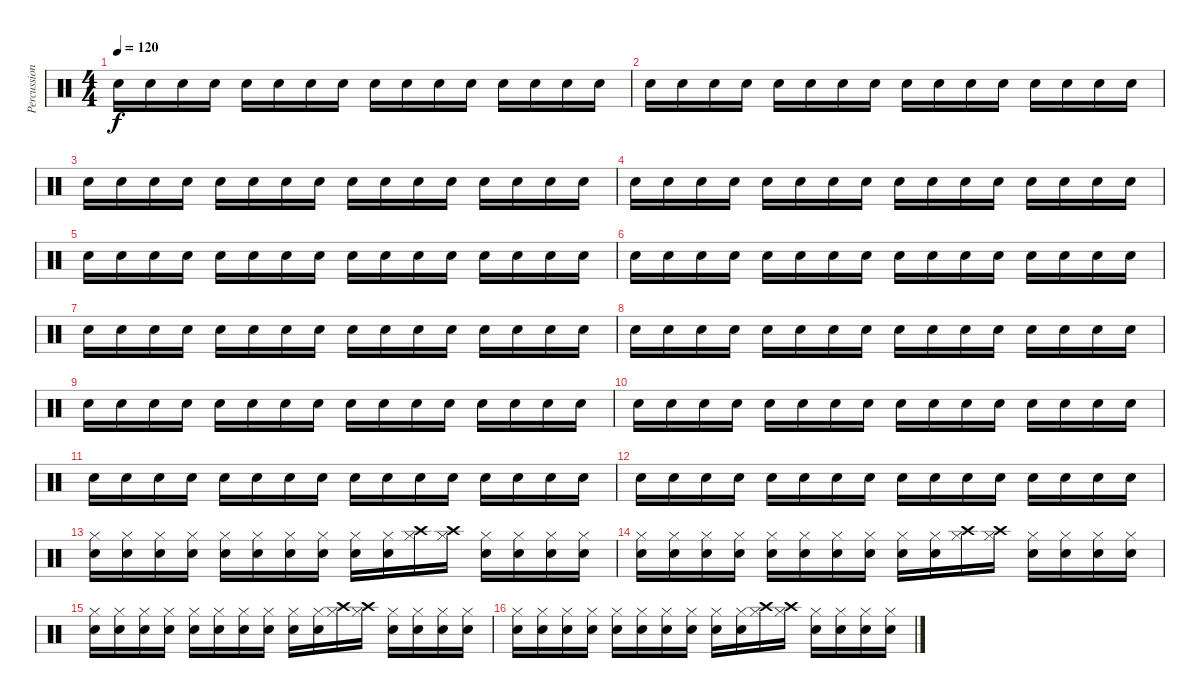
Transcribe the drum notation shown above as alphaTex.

\track ("Percussions" "Percussion") {instrument percussion}
\staff {score}
\articulation defaults
\ts (4 4)
\tempo 120
\clef neutral
\ks c "Electric Snare (hit)".16{dy f} "Electric Snare (hit)".16 "Snare (hit)"{x}.16 "Snare (hit)"{x}.16 "Electric Snare (hit)".16 "Electric Snare (hit)".16 "Snare (hit) 2".16 "Snare (hit)"{x}.16 "Snare (hit)"{x}.16 "Electric Snare (hit)".16 "Electric Snare (hit)".16 "Snare (hit)"{x}.16 "Electric Snare (hit)".16 "Electric Snare (hit)".16 "Snare (hit) 2".16 "Electric Snare (hit)".16
|
"Snare (hit)"{x}.16 "Snare (hit)"{x}.16 "Snare (hit)"{x}.16 "Snare (hit)"{x}.16 "Electric Snare (hit)".16 "Electric Snare (hit)".16 "Electric Snare (hit)".16 "Electric Snare (hit)".16 "Snare (hit) 2".16 "Snare (hit) 2".16 "Snare (hit) 2".16 "Snare (hit) 2".16 "Electric Snare (hit)".16 "Electric Snare (hit)".16 "Snare (hit)"{x}.16 "Snare (hit)"{x}.16 |
"Snare (hit)"{x}.16 "Snare (hit)"{x}.16 "Electric Snare (hit)".16 "Electric Snare (hit)".16 "Snare (hit) 2".16 "Snare (hit) 2".16 "Electric Snare (hit)".16 "Electric Snare (hit)".16 "Snare (hit)"{x}.16 "Electric Snare (hit)".16 "Snare (hit)"{x}.16 "Snare (hit) 2".16 "Snare (hit)"{x}.16 "Electric Snare (hit)".16 "Snare (hit)"{x}.16 "Snare (hit) 2".16 |
"Snare (hit)"{x}.16 "Electric Snare (hit)".16 "Snare (hit)"{x}.16 "Snare (hit) 2".16 "Electric Snare (hit)"{x}.16 "Electric Snare (hit)".16 "Snare (hit) 2"{x}.16 "Snare (hit) 2".16 "Snare (hit)"{x}.16 "Electric Snare (hit)".16 "Snare (hit)"{x}.16 "Snare (hit) 2".16 "Snare (hit)"{x}.16 "Electric Snare (hit)".16 "Snare (hit)"{x}.16 "Snare (hit) 2".16 |
"Snare (hit)"{x}.16 "Electric Snare (hit)".16 "Snare (hit)"{x}.16 "Snare (hit) 2".16 "Electric Snare (hit)"{x}.16 "Electric Snare (hit)".16 "Snare (hit) 2"{x}.16 "Snare (hit) 2".16 "Snare (hit)"{x}.16 "Electric Snare (hit)".16 "Snare (hit)"{x}.16 "Snare (hit) 2".16 "Snare (hit)"{x}.16 "Electric Snare (hit)".16 "Snare (hit)"{x}.16 "Snare (hit) 2".16 |
"Snare (hit)"{x}.16 "Snare (hit)"{x}.16 "Electric Snare (hit)".16 "Electric Snare (hit)".16 "Electric Snare (hit)".16 "Electric Snare (hit)".16 "Snare (hit) 2".16 "Snare (hit) 2".16 "Snare (hit) 2".16 "Snare (hit) 2".16 "Electric Snare (hit)".16 "Electric Snare (hit)".16 "Electric Snare (hit)".16 "Electric Snare (hit)".16 "Snare (hit) 2".16 "Snare (hit) 2".16 |
"Snare (hit) 2".16 "Snare (hit) 2".16 "Electric Snare (hit)".16 "Electric Snare (hit)".16 "Electric Snare (hit)".16 "Electric Snare (hit)".16 "Snare (hit) 2".16 "Snare (hit) 2".16 "Snare (hit) 2".16 "Snare (hit) 2".16 "Electric Snare (hit)".16 "Electric Snare (hit)".16 "Electric Snare (hit)".16 "Electric Snare (hit)".16 "Snare (hit) 2".16 "Snare (hit) 2".16 |
"Snare (hit)"{x}.16 "Snare (hit)"{x}.16 "Snare (hit)"{x}.16 "Snare (hit)"{x}.16 "Electric Snare (hit)".16 "Electric Snare (hit)".16 "Electric Snare (hit)".16 "Electric Snare (hit)".16 "Snare (hit)"{x}.16 "Snare (hit)"{x}.16 "Snare (hit)"{x}.16 "Snare (hit)"{x}.16 "Snare (hit) 2".16 "Snare (hit) 2".16 "Snare (hit) 2".16 "Snare (hit) 2".16 |
"Snare (hit)"{x}.16 "Snare (hit)"{x}.16 "Snare (hit)"{x}.16 "Snare (hit)"{x}.16 "Electric Snare (hit)".16 "Electric Snare (hit)".16 "Electric Snare (hit)".16 "Electric Snare (hit)".16 "Snare (hit)"{x}.16 "Snare (hit)"{x}.16 "Snare (hit)"{x}.16 "Snare (hit)"{x}.16 "Snare (hit) 2".16 "Snare (hit) 2".16 "Snare (hit) 2".16 "Snare (hit) 2".16 |
"Snare (hit)"{x}.16 "Snare (hit)"{x}.16 "Snare (hit)"{x}.16 "Snare (hit)"{x}.16 "Electric Snare (hit)".16 "Electric Snare (hit)".16 "Electric Snare (hit)".16 "Electric Snare (hit)".16 "Snare (hit)"{x}.16 "Snare (hit) 2".16 "Snare (hit)"{x}.16 "Electric Snare (hit)".16 "Snare (hit)"{x}.16 "Electric Snare (hit)".16 "Snare (hit) 2".16 "Snare (hit)"{x}.16 |
"Electric Snare (hit)".16 "Snare (hit)"{x}.16 "Snare (hit) 2".16 "Snare (hit)"{x}.16 "Electric Snare (hit)".16 "Snare (hit) 2".16 "Snare (hit)"{x}.16 "Electric Snare (hit)".16 "Snare (hit)"{x}.16 "Snare (hit) 2".16 "Snare (hit)"{x}.16 "Electric Snare (hit)".16 "Snare (hit) 2".16 "Snare (hit)"{x}.16 "Snare (hit) 2".16 "Electric Snare (hit)".16 |
"Snare (hit)"{x}.16 "Electric Snare (hit)".16 "Snare (hit) 2".16 "Snare (hit) 2"{x}.16 "Electric Snare (hit)".16 "Electric Snare (hit)".16 "Snare (hit) 2".16 "Snare (hit) 2".16 "Electric Snare (hit)".16 "Electric Snare (hit)".16 "Snare (hit) 2".16 "Snare (hit) 2".16 "Snare (hit)"{x}.16 "Snare (hit)"{x}.16 "Snare (hit)"{x}.16 "Snare (hit)"{x}.16 |
("Hi-Hat (closed)" "Electric Snare (hit)").16{volume 8} ("Hi-Hat (closed)" "Electric Snare (hit)").16 ("Hi-Hat (closed)" "Electric Snare (hit)").16 ("Hi-Hat (closed)" "Electric Snare (hit)").16 ("Hi-Hat (closed)" "Electric Snare (hit)").16 ("Hi-Hat (closed)" "Electric Snare (hit)").16 ("Hi-Hat (closed)" "Snare (hit) 2").16 ("Hi-Hat (closed)" "Snare (hit) 2").16 ("Hi-Hat (closed)" "Electric Snare (hit)").16 ("Hi-Hat (closed)" "Electric Snare (hit)").16 ("Hi-Hat (closed)" "Crash high (hit)").16 ("Hi-Hat (closed)" "Crash high (hit)").16 ("Hi-Hat (closed)" "Electric Snare (hit)").16 ("Hi-Hat (closed)" "Electric Snare (hit)").16 ("Hi-Hat (closed)" "Snare (hit) 2").16 ("Hi-Hat (closed)" "Snare (hit) 2").16 |
("Hi-Hat (closed)" "Electric Snare (hit)").16 ("Hi-Hat (closed)" "Electric Snare (hit)").16 ("Hi-Hat (closed)" "Electric Snare (hit)").16 ("Hi-Hat (closed)" "Electric Snare (hit)").16 ("Hi-Hat (closed)" "Electric Snare (hit)").16 ("Hi-Hat (closed)" "Electric Snare (hit)").16 ("Hi-Hat (closed)" "Snare (hit) 2").16 ("Hi-Hat (closed)" "Snare (hit) 2").16 ("Hi-Hat (closed)" "Electric Snare (hit)").16 ("Hi-Hat (closed)" "Electric Snare (hit)").16 ("Hi-Hat (closed)" "Crash high (hit)").16 ("Hi-Hat (closed)" "Crash high (hit)").16 ("Hi-Hat (closed)" "Electric Snare (hit)").16 ("Hi-Hat (closed)" "Electric Snare (hit)").16 ("Hi-Hat (closed)" "Snare (hit) 2").16 ("Hi-Hat (closed)" "Snare (hit) 2").16 |
("Hi-Hat (closed)" "Electric Snare (hit)").16 ("Hi-Hat (closed)" "Electric Snare (hit)").16 ("Hi-Hat (closed)" "Electric Snare (hit)").16 ("Hi-Hat (closed)" "Electric Snare (hit)").16 ("Hi-Hat (closed)" "Electric Snare (hit)").16 ("Hi-Hat (closed)" "Electric Snare (hit)").16 ("Hi-Hat (closed)" "Snare (hit) 2").16 ("Hi-Hat (closed)" "Snare (hit) 2").16 ("Hi-Hat (closed)" "Electric Snare (hit)").16 ("Hi-Hat (closed)" "Electric Snare (hit)").16 ("Hi-Hat (closed)" "Crash high (hit)").16 ("Hi-Hat (closed)" "Crash high (hit)").16 ("Hi-Hat (closed)" "Electric Snare (hit)").16 ("Hi-Hat (closed)" "Electric Snare (hit)").16 ("Hi-Hat (closed)" "Snare (hit) 2").16 ("Hi-Hat (closed)" "Snare (hit) 2").16 |
("Hi-Hat (closed)" "Electric Snare (hit)").16 ("Hi-Hat (closed)" "Electric Snare (hit)").16 ("Hi-Hat (closed)" "Electric Snare (hit)").16 ("Hi-Hat (closed)" "Electric Snare (hit)").16 ("Hi-Hat (closed)" "Electric Snare (hit)").16 ("Hi-Hat (closed)" "Electric Snare (hit)").16 ("Hi-Hat (closed)" "Snare (hit) 2").16 ("Hi-Hat (closed)" "Snare (hit) 2").16 ("Hi-Hat (closed)" "Electric Snare (hit)").16 ("Hi-Hat (closed)" "Electric Snare (hit)").16 ("Hi-Hat (closed)" "Crash high (hit)").16 ("Hi-Hat (closed)" "Crash high (hit)").16 ("Hi-Hat (closed)" "Electric Snare (hit)").16 ("Hi-Hat (closed)" "Electric Snare (hit)").16 ("Hi-Hat (closed)" "Snare (hit) 2").16 ("Hi-Hat (closed)" "Snare (hit) 2").16
